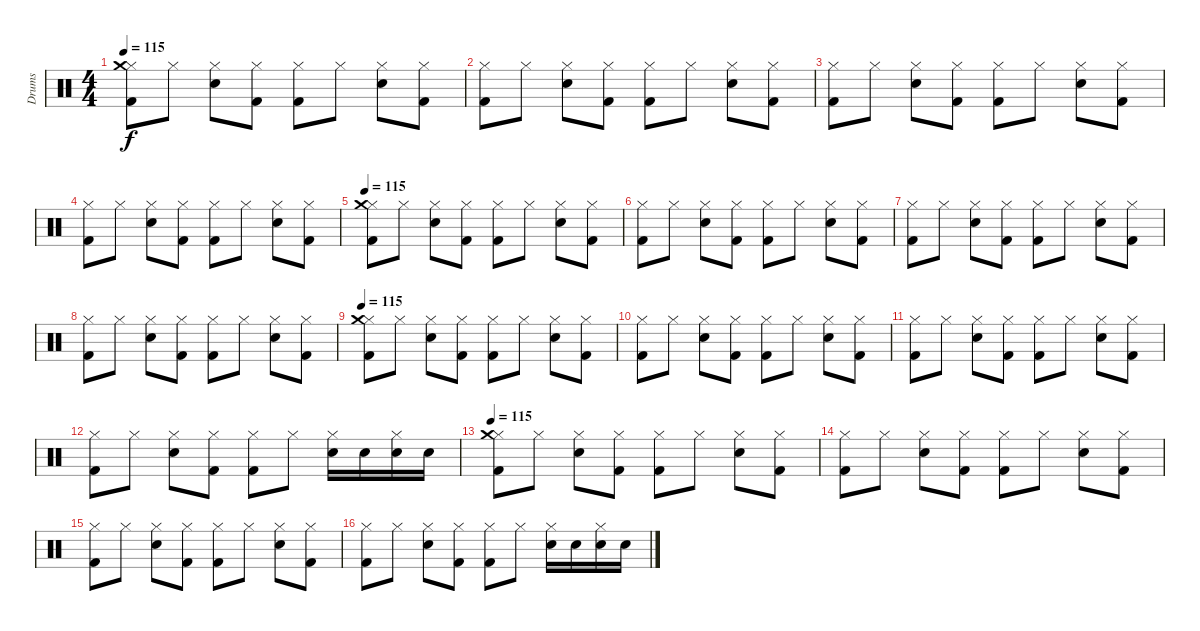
\track ("Drums" "Drums") {instrument percussion}
\staff {score}
\articulation defaults
\ts (4 4)
\tempo 115
\clef neutral
\ks c
("Hi-Hat (closed)" "Crash medium (hit)" "Kick (hit) 2").8{dy f} "Hi-Hat (closed)".8 ("Hi-Hat (closed)" "Snare (hit) 2").8 ("Hi-Hat (closed)" "Kick (hit) 2").8 ("Hi-Hat (closed)" "Kick (hit) 2").8 "Hi-Hat (closed)".8 ("Hi-Hat (closed)" "Snare (hit) 2").8 ("Hi-Hat (closed)" "Kick (hit) 2").8 |
("Hi-Hat (closed)" "Kick (hit) 2").8 "Hi-Hat (closed)".8 ("Hi-Hat (closed)" "Snare (hit) 2").8 ("Hi-Hat (closed)" "Kick (hit) 2").8 ("Hi-Hat (closed)" "Kick (hit) 2").8 "Hi-Hat (closed)".8 ("Hi-Hat (closed)" "Snare (hit) 2").8 ("Hi-Hat (closed)" "Kick (hit) 2").8 |
("Hi-Hat (closed)" "Kick (hit) 2").8 "Hi-Hat (closed)".8 ("Hi-Hat (closed)" "Snare (hit) 2").8 ("Hi-Hat (closed)" "Kick (hit) 2").8 ("Hi-Hat (closed)" "Kick (hit) 2").8 "Hi-Hat (closed)".8 ("Hi-Hat (closed)" "Snare (hit) 2").8 ("Hi-Hat (closed)" "Kick (hit) 2").8 |
("Hi-Hat (closed)" "Kick (hit) 2").8 "Hi-Hat (closed)".8 ("Hi-Hat (closed)" "Snare (hit) 2").8 ("Hi-Hat (closed)" "Kick (hit) 2").8 ("Hi-Hat (closed)" "Kick (hit) 2").8 "Hi-Hat (closed)".8 ("Hi-Hat (closed)" "Snare (hit) 2").8 ("Hi-Hat (closed)" "Kick (hit) 2").8 |
\tempo 115
("Hi-Hat (closed)" "Crash medium (hit)" "Kick (hit) 2").8 "Hi-Hat (closed)".8 ("Hi-Hat (closed)" "Snare (hit) 2").8 ("Hi-Hat (closed)" "Kick (hit) 2").8 ("Hi-Hat (closed)" "Kick (hit) 2").8 "Hi-Hat (closed)".8 ("Hi-Hat (closed)" "Snare (hit) 2").8 ("Hi-Hat (closed)" "Kick (hit) 2").8 |
("Hi-Hat (closed)" "Kick (hit) 2").8 "Hi-Hat (closed)".8 ("Hi-Hat (closed)" "Snare (hit) 2").8 ("Hi-Hat (closed)" "Kick (hit) 2").8 ("Hi-Hat (closed)" "Kick (hit) 2").8 "Hi-Hat (closed)".8 ("Hi-Hat (closed)" "Snare (hit) 2").8 ("Hi-Hat (closed)" "Kick (hit) 2").8 |
("Hi-Hat (closed)" "Kick (hit) 2").8 "Hi-Hat (closed)".8 ("Hi-Hat (closed)" "Snare (hit) 2").8 ("Hi-Hat (closed)" "Kick (hit) 2").8 ("Hi-Hat (closed)" "Kick (hit) 2").8 "Hi-Hat (closed)".8 ("Hi-Hat (closed)" "Snare (hit) 2").8 ("Hi-Hat (closed)" "Kick (hit) 2").8 |
("Hi-Hat (closed)" "Kick (hit) 2").8 "Hi-Hat (closed)".8 ("Hi-Hat (closed)" "Snare (hit) 2").8 ("Hi-Hat (closed)" "Kick (hit) 2").8 ("Hi-Hat (closed)" "Kick (hit) 2").8 "Hi-Hat (closed)".8 ("Hi-Hat (closed)" "Snare (hit) 2").8 ("Hi-Hat (closed)" "Kick (hit) 2").8 |
\tempo 115
("Hi-Hat (closed)" "Crash medium (hit)" "Kick (hit) 2").8 "Hi-Hat (closed)".8 ("Hi-Hat (closed)" "Snare (hit) 2").8 ("Hi-Hat (closed)" "Kick (hit) 2").8 ("Hi-Hat (closed)" "Kick (hit) 2").8 "Hi-Hat (closed)".8 ("Hi-Hat (closed)" "Snare (hit) 2").8 ("Hi-Hat (closed)" "Kick (hit) 2").8 |
("Hi-Hat (closed)" "Kick (hit) 2").8 "Hi-Hat (closed)".8 ("Hi-Hat (closed)" "Snare (hit) 2").8 ("Hi-Hat (closed)" "Kick (hit) 2").8 ("Hi-Hat (closed)" "Kick (hit) 2").8 "Hi-Hat (closed)".8 ("Hi-Hat (closed)" "Snare (hit) 2").8 ("Hi-Hat (closed)" "Kick (hit) 2").8 |
("Hi-Hat (closed)" "Kick (hit) 2").8 "Hi-Hat (closed)".8 ("Hi-Hat (closed)" "Snare (hit) 2").8 ("Hi-Hat (closed)" "Kick (hit) 2").8 ("Hi-Hat (closed)" "Kick (hit) 2").8 "Hi-Hat (closed)".8 ("Hi-Hat (closed)" "Snare (hit) 2").8 ("Hi-Hat (closed)" "Kick (hit) 2").8 |
("Hi-Hat (closed)" "Kick (hit) 2").8 "Hi-Hat (closed)".8 ("Hi-Hat (closed)" "Snare (hit) 2").8 ("Hi-Hat (closed)" "Kick (hit) 2").8 ("Hi-Hat (closed)" "Kick (hit) 2").8 "Hi-Hat (closed)".8 ("Snare (hit) 2" "Hi-Hat (closed)").16 "Snare (hit) 2".16 ("Snare (hit) 2" "Hi-Hat (closed)").16 "Snare (hit) 2".16 |
\tempo 115
("Hi-Hat (closed)" "Crash medium (hit)" "Kick (hit) 2").8 "Hi-Hat (closed)".8 ("Hi-Hat (closed)" "Snare (hit) 2").8 ("Hi-Hat (closed)" "Kick (hit) 2").8 ("Hi-Hat (closed)" "Kick (hit) 2").8 "Hi-Hat (closed)".8 ("Hi-Hat (closed)" "Snare (hit) 2").8 ("Hi-Hat (closed)" "Kick (hit) 2").8 |
("Hi-Hat (closed)" "Kick (hit) 2").8 "Hi-Hat (closed)".8 ("Hi-Hat (closed)" "Snare (hit) 2").8 ("Hi-Hat (closed)" "Kick (hit) 2").8 ("Hi-Hat (closed)" "Kick (hit) 2").8 "Hi-Hat (closed)".8 ("Hi-Hat (closed)" "Snare (hit) 2").8 ("Hi-Hat (closed)" "Kick (hit) 2").8 |
("Hi-Hat (closed)" "Kick (hit) 2").8 "Hi-Hat (closed)".8 ("Hi-Hat (closed)" "Snare (hit) 2").8 ("Hi-Hat (closed)" "Kick (hit) 2").8 ("Hi-Hat (closed)" "Kick (hit) 2").8 "Hi-Hat (closed)".8 ("Hi-Hat (closed)" "Snare (hit) 2").8 ("Hi-Hat (closed)" "Kick (hit) 2").8 |
("Hi-Hat (closed)" "Kick (hit) 2").8 "Hi-Hat (closed)".8 ("Hi-Hat (closed)" "Snare (hit) 2").8 ("Hi-Hat (closed)" "Kick (hit) 2").8 ("Hi-Hat (closed)" "Kick (hit) 2").8 "Hi-Hat (closed)".8 ("Snare (hit) 2" "Hi-Hat (closed)").16 "Snare (hit) 2".16 ("Snare (hit) 2" "Hi-Hat (closed)").16 "Snare (hit) 2".16
